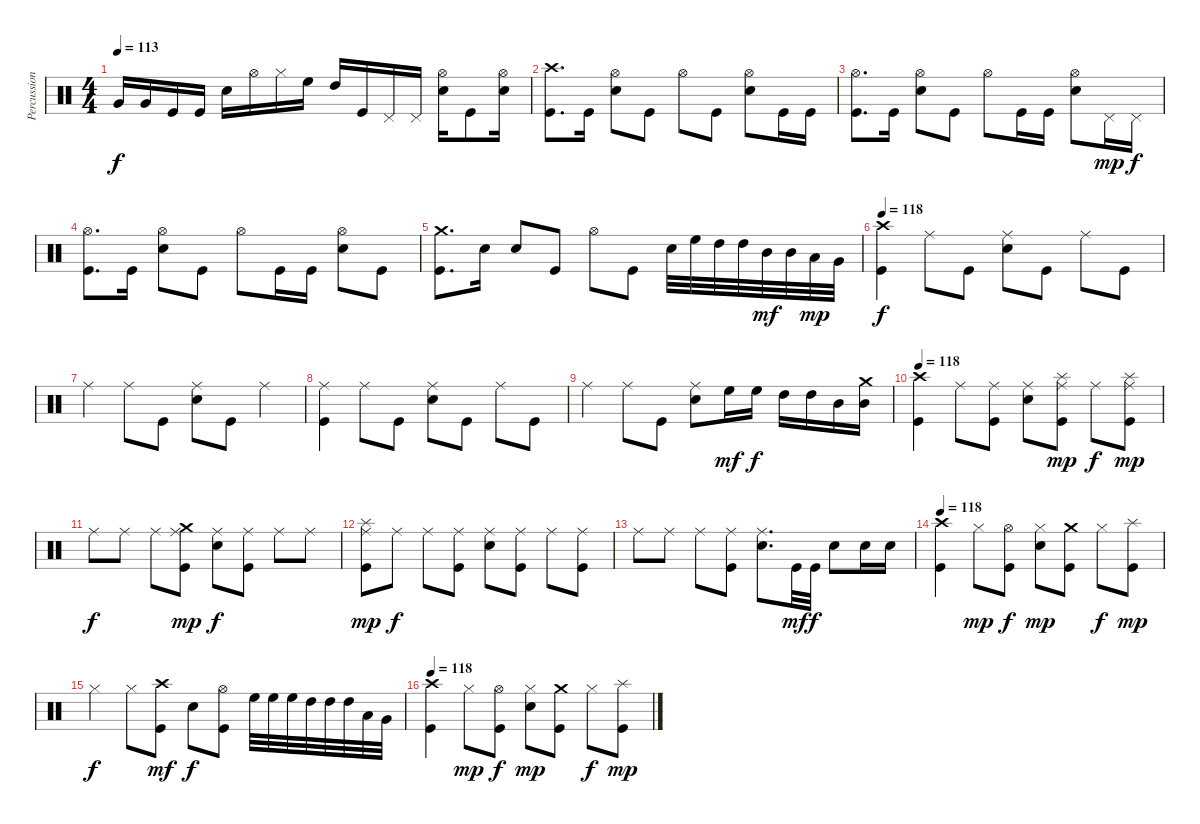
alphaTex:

\track ("Percussioni" "Percussion") {instrument percussion}
\staff {score}
\articulation defaults
\ts (4 4)
\tempo 113
\clef neutral
\ks c "Very Low Tom (hit)".16{dy f} "Very Low Tom (hit)".16 "Kick (hit)".16 "Kick (hit)".16 "Snare (hit) 2".16 "Hi-Hat (open)".16 "Hi-Hat (closed)".16 "High Floor Tom (hit)".16 "High Tom (hit)".16 "Kick (hit)".16 "Pedal Hi-Hat (hit)".16 "Pedal Hi-Hat (hit)".16
("Hi-Hat (open)" "Snare (hit) 2").16 "Kick (hit)".8 ("Hi-Hat (open)" "Snare (hit) 2").16 |
("Crash high (hit)" "Kick (hit)").8{d} "Kick (hit)".16 ("Hi-Hat (open)" "Snare (hit) 2").8 "Kick (hit)".8 "Hi-Hat (open)".8 "Kick (hit)".8 ("Hi-Hat (open)" "Snare (hit) 2").8 "Kick (hit)".16 "Kick (hit)".16 |
("Hi-Hat (open)" "Kick (hit)").8{d} "Kick (hit)".16 ("Hi-Hat (open)" "Snare (hit) 2").8 "Kick (hit)".8 "Hi-Hat (open)".8 "Kick (hit)".16 "Kick (hit)".16 ("Hi-Hat (open)" "Snare (hit) 2").8 "Pedal Hi-Hat (hit)".16{dy mp} "Pedal Hi-Hat (hit)".16{dy f} |
("Hi-Hat (open)" "Kick (hit)").8{d} "Kick (hit)".16 ("Hi-Hat (open)" "Snare (hit) 2").8 "Kick (hit)".8 "Hi-Hat (open)".8 "Kick (hit)".16 "Kick (hit)".16 ("Hi-Hat (open)" "Snare (hit) 2").8 "Kick (hit)".8 |
("Crash medium (hit)" "Kick (hit)").8{d} "Snare (hit) 2".16 "Snare (hit) 2".8 "Kick (hit)".8 "Hi-Hat (open)".8 "Kick (hit)".8 "Snare (hit) 2".32 "High Floor Tom (hit)".32 "High Tom (hit)".32 "High Tom (hit)".32 "Mid Tom (hit)".32{dy mf} "Mid Tom (hit)".32 "Low Tom (hit)".32{dy mp} "Very Low Tom (hit)".32 |
\tempo 118
("Crash high (hit)" "Kick (hit)").4{dy f} "Ride (middle)".8 "Kick (hit)".8 ("Ride (middle)" "Snare (hit) 2").8 "Kick (hit)".8 "Ride (middle)".8 "Kick (hit)".8 |
"Ride (middle)".4 "Ride (middle)".8 "Kick (hit)".8 ("Ride (middle)" "Snare (hit) 2").8 "Kick (hit)".8 "Ride (middle)".4 |
("Ride (middle)" "Kick (hit)").4 "Ride (middle)".8 "Kick (hit)".8 ("Ride (middle)" "Snare (hit) 2").8 "Kick (hit)".8 "Ride (middle)".8 "Kick (hit)".8 |
"Ride (middle)".4 "Ride (middle)".8 "Kick (hit)".8 ("Ride (middle)" "Snare (hit) 2").8 "High Floor Tom (hit)".16{dy mf} "High Floor Tom (hit)".16{dy f} "High Tom (hit)".16 "High Tom (hit)".16 "Mid Tom (hit)".16 ("Crash medium (hit)" "Mid Tom (hit)").16 |
\tempo 118
("Crash high (hit)" "Kick (hit)").4 "Ride (middle)".8 ("Ride (middle)" "Kick (hit)").8 ("Ride (middle)" "Snare (hit) 2").8 ("Splash (hit)" "Ride (middle)" "Kick (hit)").8{dy mp} "Ride (middle)".8{dy f} ("Splash (hit)" "Ride (middle)" "Kick (hit)").8{dy mp} |
"Ride (middle)".8{dy f} "Ride (middle)".8 "Ride (middle)".8 ("Crash medium (hit)" "Ride (middle)" "Kick (hit)").8{dy mp} ("Ride (middle)" "Snare (hit) 2").8{dy f} ("Ride (middle)" "Kick (hit)").8 "Ride (middle)".8 "Ride (middle)".8 |
("Splash (hit)" "Ride (middle)" "Kick (hit)").8{dy mp} "Ride (middle)".8{dy f} "Ride (middle)".8 ("Ride (middle)" "Kick (hit)").8 ("Ride (middle)" "Snare (hit) 2").8 ("Ride (middle)" "Kick (hit)").8 "Ride (middle)".8 ("Ride (middle)" "Kick (hit)").8 |
"Ride (middle)".8 "Ride (middle)".8 "Ride (middle)".8 ("Ride (middle)" "Kick (hit)").8 ("Ride (middle)" "Snare (hit) 2").8{d} "Kick (hit)".32{dy mf} "Kick (hit)".32{dy f} "Snare (hit) 2".8 "Snare (hit) 2".16 "Snare (hit) 2".16 |
\tempo 118
("Crash high (hit)" "Kick (hit)").4 "Hi-Hat (closed)".8{dy mp} ("Hi-Hat (open)" "Kick (hit)").8{dy f} ("Hi-Hat (closed)" "Snare (hit) 2").8{dy mp} ("Crash medium (hit)" "Kick (hit)").8 "Hi-Hat (closed)".8{dy f} ("Splash (hit)" "Kick (hit)").8{dy mp} |
"Hi-Hat (closed)".4{dy f} "Hi-Hat (closed)".8 ("Crash high (hit)" "Kick (hit)").8{dy mf} "Snare (hit) 2".8{dy f} ("Hi-Hat (open)" "Kick (hit)").8 "High Floor Tom (hit)".32 "High Floor Tom (hit)".32 "High Floor Tom (hit)".32 "High Tom (hit)".32 "High Tom (hit)".32 "High Tom (hit)".32 "Low Tom (hit)".32 "Very Low Tom (hit)".32 |
\tempo 118
("Crash high (hit)" "Kick (hit)").4 "Hi-Hat (closed)".8{dy mp} ("Hi-Hat (open)" "Kick (hit)").8{dy f} ("Hi-Hat (closed)" "Snare (hit) 2").8{dy mp} ("Crash medium (hit)" "Kick (hit)").8 "Hi-Hat (closed)".8{dy f} ("Splash (hit)" "Kick (hit)").8{dy mp}
